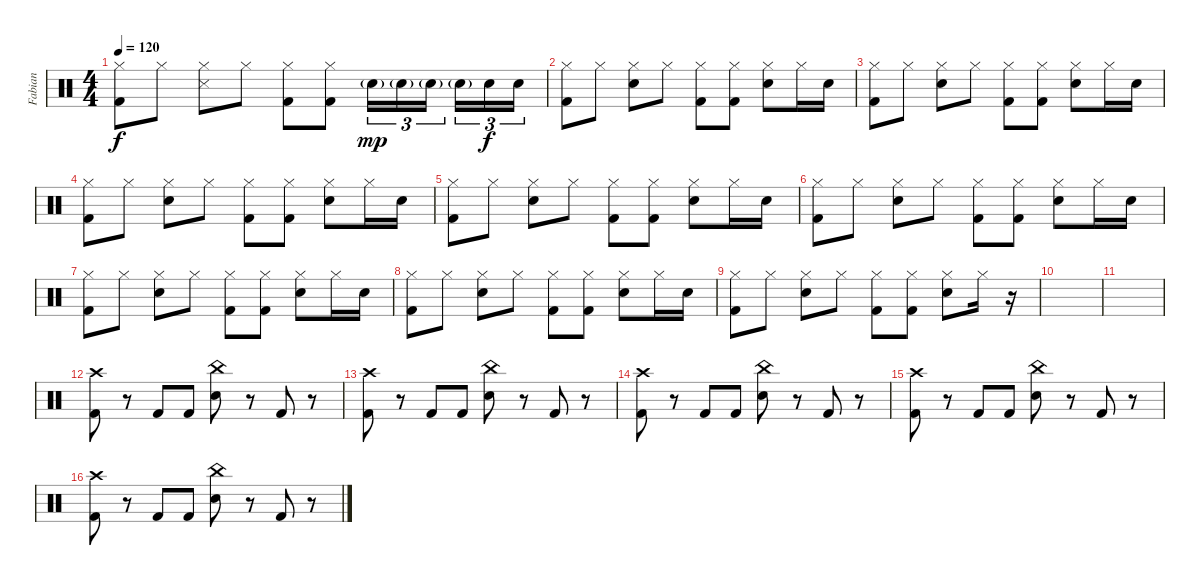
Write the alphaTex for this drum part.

\track ("Fabian" "Fabian") {instrument percussion}
\staff {score}
\articulation defaults
\ts (4 4)
\tempo 120
\clef neutral
\ks c
("Hi-Hat (closed)" "Kick (hit) 2").8{dy f} "Hi-Hat (closed)".8 ("Hi-Hat (closed)" "Snare (side stick) 3").8 "Hi-Hat (closed)".8 ("Hi-Hat (closed)" "Kick (hit) 2").8 ("Hi-Hat (closed)" "Kick (hit) 2").8 "Snare (hit) 2"{g}.16{tu (3 2) dy mp} "Snare (hit) 2"{g}.16{tu (3 2)} "Snare (hit) 2"{g}.16{tu (3 2)} "Snare (hit) 2"{g}.16{tu (3 2)} "Snare (hit) 2".16{tu (3 2) dy f} "Snare (hit) 2".16{tu (3 2)} |
("Hi-Hat (closed)" "Kick (hit) 2").8 "Hi-Hat (closed)".8 ("Hi-Hat (closed)" "Snare (hit) 2").8 "Hi-Hat (closed)".8 ("Hi-Hat (closed)" "Kick (hit) 2").8 ("Hi-Hat (closed)" "Kick (hit) 2").8 ("Hi-Hat (closed)" "Snare (hit) 2").8 "Hi-Hat (closed)".16 "Snare (hit) 2".16 |
("Hi-Hat (closed)" "Kick (hit) 2").8 "Hi-Hat (closed)".8 ("Hi-Hat (closed)" "Snare (hit) 2").8 "Hi-Hat (closed)".8 ("Hi-Hat (closed)" "Kick (hit) 2").8 ("Hi-Hat (closed)" "Kick (hit) 2").8 ("Hi-Hat (closed)" "Snare (hit) 2").8 "Hi-Hat (closed)".16 "Snare (hit) 2".16 |
("Hi-Hat (closed)" "Kick (hit) 2").8 "Hi-Hat (closed)".8 ("Hi-Hat (closed)" "Snare (hit) 2").8 "Hi-Hat (closed)".8 ("Hi-Hat (closed)" "Kick (hit) 2").8 ("Hi-Hat (closed)" "Kick (hit) 2").8 ("Hi-Hat (closed)" "Snare (hit) 2").8 "Hi-Hat (closed)".16 "Snare (hit) 2".16 |
("Hi-Hat (closed)" "Kick (hit) 2").8 "Hi-Hat (closed)".8 ("Hi-Hat (closed)" "Snare (hit) 2").8 "Hi-Hat (closed)".8 ("Hi-Hat (closed)" "Kick (hit) 2").8 ("Hi-Hat (closed)" "Kick (hit) 2").8 ("Hi-Hat (closed)" "Snare (hit) 2").8 "Hi-Hat (closed)".16 "Snare (hit) 2".16 |
("Hi-Hat (closed)" "Kick (hit) 2").8 "Hi-Hat (closed)".8 ("Hi-Hat (closed)" "Snare (hit) 2").8 "Hi-Hat (closed)".8 ("Hi-Hat (closed)" "Kick (hit) 2").8 ("Hi-Hat (closed)" "Kick (hit) 2").8 ("Hi-Hat (closed)" "Snare (hit) 2").8 "Hi-Hat (closed)".16 "Snare (hit) 2".16 |
("Hi-Hat (closed)" "Kick (hit) 2").8 "Hi-Hat (closed)".8 ("Hi-Hat (closed)" "Snare (hit) 2").8 "Hi-Hat (closed)".8 ("Hi-Hat (closed)" "Kick (hit) 2").8 ("Hi-Hat (closed)" "Kick (hit) 2").8 ("Hi-Hat (closed)" "Snare (hit) 2").8 "Hi-Hat (closed)".16 "Snare (hit) 2".16 |
("Hi-Hat (closed)" "Kick (hit) 2").8 "Hi-Hat (closed)".8 ("Hi-Hat (closed)" "Snare (hit) 2").8 "Hi-Hat (closed)".8 ("Hi-Hat (closed)" "Kick (hit) 2").8 ("Hi-Hat (closed)" "Kick (hit) 2").8 ("Hi-Hat (closed)" "Snare (hit) 2").8 "Hi-Hat (closed)".16 "Snare (hit) 2".16 |
("Hi-Hat (closed)" "Kick (hit) 2").8 "Hi-Hat (closed)".8 ("Hi-Hat (closed)" "Snare (hit) 2").8 "Hi-Hat (closed)".8 ("Hi-Hat (closed)" "Kick (hit) 2").8 ("Hi-Hat (closed)" "Kick (hit) 2").8 ("Hi-Hat (closed)" "Snare (hit) 2").8 "Hi-Hat (closed)".16 r.16 |
|
|
("Crash high (hit)" "Kick (hit) 2").8 r.8 "Kick (hit) 2".8 "Kick (hit) 2".8 ("China (hit)" "Snare (hit) 2").8 r.8 "Kick (hit) 2".8 r.8 |
("Crash high (hit)" "Kick (hit) 2").8 r.8 "Kick (hit) 2".8 "Kick (hit) 2".8 ("China (hit)" "Snare (hit) 2").8 r.8 "Kick (hit) 2".8 r.8 |
("Crash high (hit)" "Kick (hit) 2").8 r.8 "Kick (hit) 2".8 "Kick (hit) 2".8 ("China (hit)" "Snare (hit) 2").8 r.8 "Kick (hit) 2".8 r.8 |
("Crash high (hit)" "Kick (hit) 2").8 r.8 "Kick (hit) 2".8 "Kick (hit) 2".8 ("China (hit)" "Snare (hit) 2").8 r.8 "Kick (hit) 2".8 r.8 |
("Crash high (hit)" "Kick (hit) 2").8 r.8 "Kick (hit) 2".8 "Kick (hit) 2".8 ("China (hit)" "Snare (hit) 2").8 r.8 "Kick (hit) 2".8 r.8
